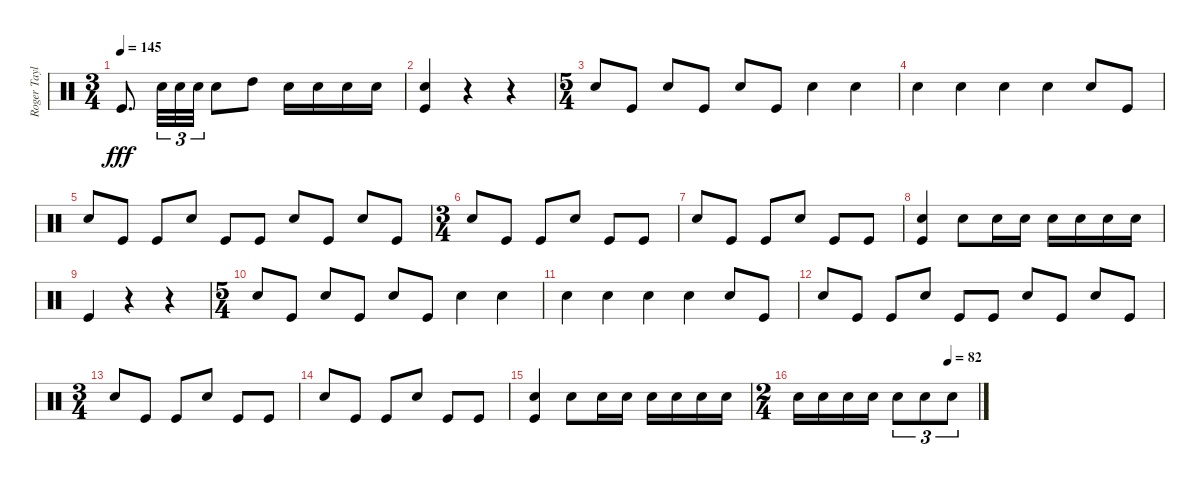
\track ("Roger Taylor" "Roger Tayl") {instrument percussion}
\staff {score}
\articulation defaults
\ts (3 4)
\tempo 145
\clef neutral
\ks c "Kick (hit)".8{d dy fff} "Snare (hit) 2".32{tu (3 2)} "Snare (hit) 2".32{tu (3 2)} "Snare (hit) 2".32{tu (3 2)} "Snare (hit) 2".8 "High Tom (hit)".8 "Snare (hit) 2".16 "Snare (hit) 2".16 "Snare (hit) 2".16 "Snare (hit) 2".16
|
("Snare (hit) 2" "Kick (hit)").4 r.4 r.4 |
\ts (5 4)
"Snare (hit) 2".8 "Kick (hit)".8 "Snare (hit) 2".8 "Kick (hit)".8 "Snare (hit) 2".8 "Kick (hit)".8 "Snare (hit) 2".4 "Snare (hit) 2".4 |
"Snare (hit) 2".4 "Snare (hit) 2".4 "Snare (hit) 2".4 "Snare (hit) 2".4 "Snare (hit) 2".8 "Kick (hit)".8 |
"Snare (hit) 2".8 "Kick (hit)".8 "Kick (hit)".8 "Snare (hit) 2".8 "Kick (hit)".8 "Kick (hit)".8 "Snare (hit) 2".8 "Kick (hit)".8 "Snare (hit) 2".8 "Kick (hit)".8 |
\ts (3 4)
"Snare (hit) 2".8 "Kick (hit)".8 "Kick (hit)".8 "Snare (hit) 2".8 "Kick (hit)".8 "Kick (hit)".8 |
"Snare (hit) 2".8 "Kick (hit)".8 "Kick (hit)".8 "Snare (hit) 2".8 "Kick (hit)".8 "Kick (hit)".8 |
("Snare (hit) 2" "Kick (hit)").4 "Snare (hit) 2".8 "Snare (hit) 2".16 "Snare (hit) 2".16 "Snare (hit) 2".16 "Snare (hit) 2".16 "Snare (hit) 2".16 "Snare (hit) 2".16 |
"Kick (hit)".4 r.4 r.4 |
\ts (5 4)
"Snare (hit) 2".8 "Kick (hit)".8 "Snare (hit) 2".8 "Kick (hit)".8 "Snare (hit) 2".8 "Kick (hit)".8 "Snare (hit) 2".4 "Snare (hit) 2".4 |
"Snare (hit) 2".4 "Snare (hit) 2".4 "Snare (hit) 2".4 "Snare (hit) 2".4 "Snare (hit) 2".8 "Kick (hit)".8 |
"Snare (hit) 2".8 "Kick (hit)".8 "Kick (hit)".8 "Snare (hit) 2".8 "Kick (hit)".8 "Kick (hit)".8 "Snare (hit) 2".8 "Kick (hit)".8 "Snare (hit) 2".8 "Kick (hit)".8 |
\ts (3 4)
"Snare (hit) 2".8 "Kick (hit)".8 "Kick (hit)".8 "Snare (hit) 2".8 "Kick (hit)".8 "Kick (hit)".8 |
"Snare (hit) 2".8 "Kick (hit)".8 "Kick (hit)".8 "Snare (hit) 2".8 "Kick (hit)".8 "Kick (hit)".8 |
("Snare (hit) 2" "Kick (hit)").4 "Snare (hit) 2".8 "Snare (hit) 2".16 "Snare (hit) 2".16 "Snare (hit) 2".16 "Snare (hit) 2".16 "Snare (hit) 2".16 "Snare (hit) 2".16 |
\ts (2 4)
\tempo (82 0.8333333333333334)
"Snare (hit) 2".16 "Snare (hit) 2".16 "Snare (hit) 2".16 "Snare (hit) 2".16 "Snare (hit) 2".8{tu (3 2)} "Snare (hit) 2".8{tu (3 2)} "Snare (hit) 2".8{tu (3 2)}
